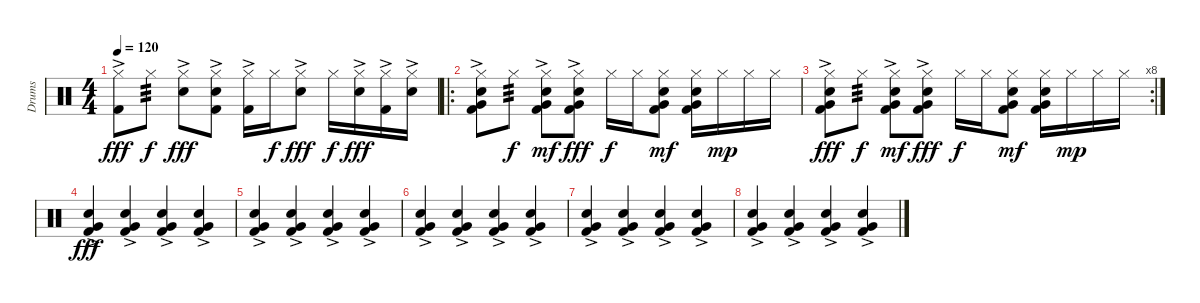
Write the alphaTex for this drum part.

\track ("Drums" "Drums") {instrument percussion}
\staff {score}
\articulation defaults
\ts (4 4)
\tempo 120
\clef neutral
\ks c
("Hi-Hat (closed)" "Kick (hit) 2"{ac}).8{dy fff} "Hi-Hat (closed)".8{tp 3 dy f} ("Hi-Hat (closed)" "Snare (hit) 2"{ac}).8{dy fff} ("Hi-Hat (closed)" "Snare (hit) 2"{ac} "Kick (hit) 2"{ac}).8 ("Hi-Hat (closed)" "Kick (hit) 2"{ac}).16 "Hi-Hat (closed)".16{dy f} ("Hi-Hat (closed)" "Snare (hit) 2"{ac}).8{dy fff} "Hi-Hat (closed)".16{dy f} ("Hi-Hat (closed)" "Snare (hit) 2"{ac}).16{dy fff} ("Hi-Hat (closed)" "Kick (hit) 2"{ac}).16 ("Hi-Hat (closed)" "Snare (hit) 2"{ac}).16 |
\ro
("Hi-Hat (closed)" "Very Low Tom (hit)" "Snare (hit) 2"{ac} "Kick (hit) 2"{ac}).8 "Hi-Hat (closed)".8{tp 3 dy f} ("Hi-Hat (closed)" "Very Low Tom (hit)" "Snare (hit) 2"{ac} "Kick (hit) 2").8{dy mf} ("Hi-Hat (closed)" "Very Low Tom (hit)" "Snare (hit) 2"{ac} "Kick (hit) 2"{ac}).8{dy fff} "Hi-Hat (closed)".16{dy f} "Hi-Hat (closed)".16 ("Hi-Hat (closed)" "Very Low Tom (hit)" "Snare (hit) 2" "Kick (hit) 2").8{dy mf} ("Hi-Hat (closed)" "Very Low Tom (hit)" "Snare (hit) 2" "Kick (hit) 2").16 "Hi-Hat (closed)".16{dy mp} "Hi-Hat (closed)".16 "Hi-Hat (closed)".16 |
\rc 8
("Hi-Hat (closed)" "Very Low Tom (hit)" "Snare (hit) 2"{ac} "Kick (hit) 2"{ac}).8{dy fff} "Hi-Hat (closed)".8{tp 3 dy f} ("Hi-Hat (closed)" "Very Low Tom (hit)" "Snare (hit) 2"{ac} "Kick (hit) 2").8{dy mf} ("Hi-Hat (closed)" "Very Low Tom (hit)" "Snare (hit) 2"{ac} "Kick (hit) 2"{ac}).8{dy fff} "Hi-Hat (closed)".16{dy f} "Hi-Hat (closed)".16 ("Hi-Hat (closed)" "Very Low Tom (hit)" "Snare (hit) 2" "Kick (hit) 2").8{dy mf} ("Hi-Hat (closed)" "Very Low Tom (hit)" "Snare (hit) 2" "Kick (hit) 2").16 "Hi-Hat (closed)".16{dy mp} "Hi-Hat (closed)".16 "Hi-Hat (closed)".16 |
("Very Low Tom (hit)" "Snare (hit) 2"{ac} "Kick (hit) 2"{ac}).4{dy fff} ("Very Low Tom (hit)" "Snare (hit) 2"{ac} "Kick (hit) 2"{ac}).4 ("Very Low Tom (hit)" "Snare (hit) 2"{ac} "Kick (hit) 2"{ac}).4 ("Very Low Tom (hit)" "Snare (hit) 2"{ac} "Kick (hit) 2"{ac}).4 |
("Very Low Tom (hit)" "Snare (hit) 2"{ac} "Kick (hit) 2"{ac}).4 ("Very Low Tom (hit)" "Snare (hit) 2"{ac} "Kick (hit) 2"{ac}).4 ("Very Low Tom (hit)" "Snare (hit) 2"{ac} "Kick (hit) 2"{ac}).4 ("Very Low Tom (hit)" "Snare (hit) 2"{ac} "Kick (hit) 2"{ac}).4 |
("Very Low Tom (hit)" "Snare (hit) 2"{ac} "Kick (hit) 2"{ac}).4 ("Very Low Tom (hit)" "Snare (hit) 2"{ac} "Kick (hit) 2"{ac}).4 ("Very Low Tom (hit)" "Snare (hit) 2"{ac} "Kick (hit) 2"{ac}).4 ("Very Low Tom (hit)" "Snare (hit) 2"{ac} "Kick (hit) 2"{ac}).4 |
("Very Low Tom (hit)" "Snare (hit) 2"{ac} "Kick (hit) 2"{ac}).4 ("Very Low Tom (hit)" "Snare (hit) 2"{ac} "Kick (hit) 2"{ac}).4 ("Very Low Tom (hit)" "Snare (hit) 2"{ac} "Kick (hit) 2"{ac}).4 ("Very Low Tom (hit)" "Snare (hit) 2"{ac} "Kick (hit) 2"{ac}).4 |
("Very Low Tom (hit)" "Snare (hit) 2"{ac} "Kick (hit) 2"{ac}).4{volume 0} ("Very Low Tom (hit)" "Snare (hit) 2"{ac} "Kick (hit) 2"{ac}).4 ("Very Low Tom (hit)" "Snare (hit) 2"{ac} "Kick (hit) 2"{ac}).4 ("Very Low Tom (hit)" "Snare (hit) 2"{ac} "Kick (hit) 2"{ac}).4
